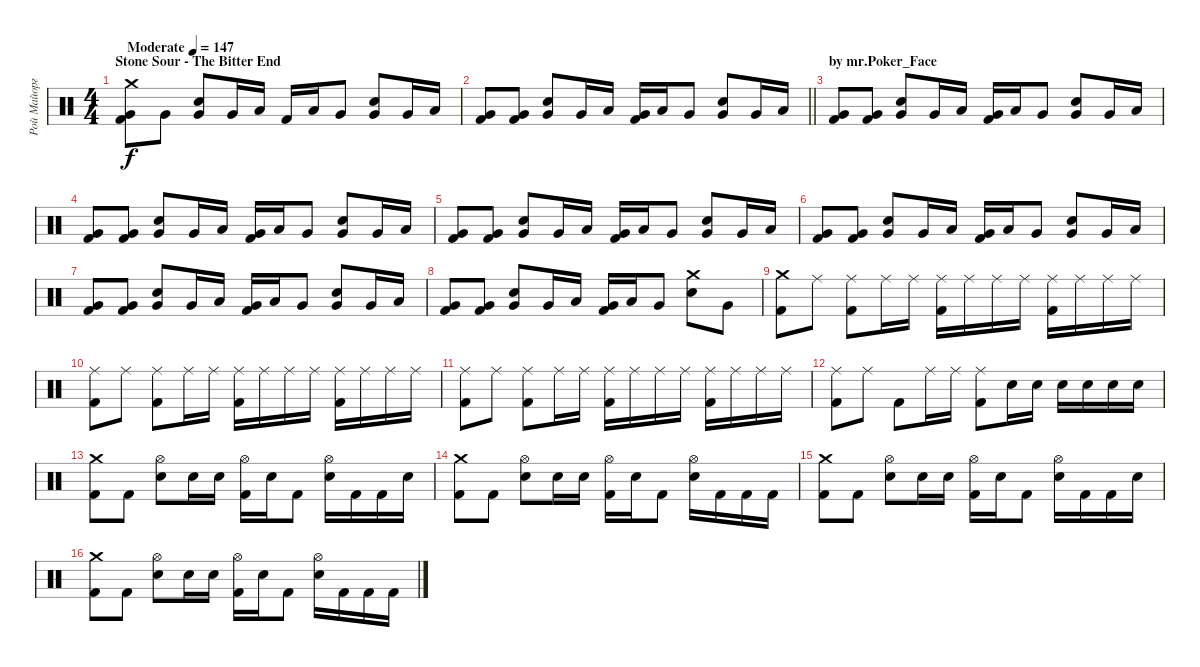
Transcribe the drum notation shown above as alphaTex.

\track ("Рой Майорга" "Рой Майорг") {instrument percussion}
\staff {score}
\articulation defaults
\ts (4 4)
\section ("" "Stone Sour - The Bitter End")
\tempo (147 "Moderate")
\clef neutral
\ks c
("Crash medium (hit)" "Very Low Tom (hit)" "Kick (hit) 2").8{dy f} "Very Low Tom (hit)".8 ("Very Low Tom (hit)" "Electric Snare (hit)").8 "Very Low Tom (hit)".16 "Low Floor Tom (hit)".16 "Kick (hit) 2".16 "Low Floor Tom (hit)".16 "Very Low Tom (hit)".8 ("Very Low Tom (hit)" "Electric Snare (hit)").8 "Very Low Tom (hit)".16 "Low Floor Tom (hit)".16 |
\barLineRight lightlight
("Very Low Tom (hit)" "Kick (hit) 2").8 ("Very Low Tom (hit)" "Kick (hit) 2").8 ("Very Low Tom (hit)" "Electric Snare (hit)").8 "Very Low Tom (hit)".16 "Low Floor Tom (hit)".16 ("Very Low Tom (hit)" "Kick (hit) 2").16 "Low Floor Tom (hit)".16 "Very Low Tom (hit)".8 ("Very Low Tom (hit)" "Electric Snare (hit)").8 "Very Low Tom (hit)".16 "Low Floor Tom (hit)".16 |
\section ("" "by mr.Poker_Face")
("Very Low Tom (hit)" "Kick (hit) 2").8 ("Very Low Tom (hit)" "Kick (hit) 2").8 ("Very Low Tom (hit)" "Electric Snare (hit)").8 "Very Low Tom (hit)".16 "Low Floor Tom (hit)".16 ("Very Low Tom (hit)" "Kick (hit) 2").16 "Low Floor Tom (hit)".16 "Very Low Tom (hit)".8 ("Very Low Tom (hit)" "Electric Snare (hit)").8 "Very Low Tom (hit)".16 "Low Floor Tom (hit)".16 |
("Very Low Tom (hit)" "Kick (hit) 2").8 ("Very Low Tom (hit)" "Kick (hit) 2").8 ("Very Low Tom (hit)" "Electric Snare (hit)").8 "Very Low Tom (hit)".16 "Low Floor Tom (hit)".16 ("Very Low Tom (hit)" "Kick (hit) 2").16 "Low Floor Tom (hit)".16 "Very Low Tom (hit)".8 ("Very Low Tom (hit)" "Electric Snare (hit)").8 "Very Low Tom (hit)".16 "Low Floor Tom (hit)".16 |
("Very Low Tom (hit)" "Kick (hit) 2").8 ("Very Low Tom (hit)" "Kick (hit) 2").8 ("Very Low Tom (hit)" "Electric Snare (hit)").8 "Very Low Tom (hit)".16 "Low Floor Tom (hit)".16 ("Very Low Tom (hit)" "Kick (hit) 2").16 "Low Floor Tom (hit)".16 "Very Low Tom (hit)".8 ("Very Low Tom (hit)" "Electric Snare (hit)").8 "Very Low Tom (hit)".16 "Low Floor Tom (hit)".16 |
("Very Low Tom (hit)" "Kick (hit) 2").8 ("Very Low Tom (hit)" "Kick (hit) 2").8 ("Very Low Tom (hit)" "Electric Snare (hit)").8 "Very Low Tom (hit)".16 "Low Floor Tom (hit)".16 ("Very Low Tom (hit)" "Kick (hit) 2").16 "Low Floor Tom (hit)".16 "Very Low Tom (hit)".8 ("Very Low Tom (hit)" "Electric Snare (hit)").8 "Very Low Tom (hit)".16 "Low Floor Tom (hit)".16 |
("Very Low Tom (hit)" "Kick (hit) 2").8 ("Very Low Tom (hit)" "Kick (hit) 2").8 ("Very Low Tom (hit)" "Electric Snare (hit)").8 "Very Low Tom (hit)".16 "Low Floor Tom (hit)".16 ("Very Low Tom (hit)" "Kick (hit) 2").16 "Low Floor Tom (hit)".16 "Very Low Tom (hit)".8 ("Very Low Tom (hit)" "Electric Snare (hit)").8 "Very Low Tom (hit)".16 "Low Floor Tom (hit)".16 |
("Very Low Tom (hit)" "Kick (hit) 2").8 ("Very Low Tom (hit)" "Kick (hit) 2").8 ("Very Low Tom (hit)" "Electric Snare (hit)").8 "Very Low Tom (hit)".16 "Low Floor Tom (hit)".16 ("Very Low Tom (hit)" "Kick (hit) 2").16 "Low Floor Tom (hit)".16 "Very Low Tom (hit)".8 ("Crash medium (hit)" "Electric Snare (hit)").8 "Very Low Tom (hit)".8 |
("Crash medium (hit)" "Kick (hit) 2").8 "Ride (middle)".8 ("Ride (middle)" "Kick (hit) 2").8 "Ride (middle)".16 "Ride (middle)".16 ("Ride (middle)" "Kick (hit) 2").16 "Ride (middle)".16 "Ride (middle)".16 "Ride (middle)".16 ("Ride (middle)" "Kick (hit) 2").16 "Ride (middle)".16 "Ride (middle)".16 "Ride (middle)".16 |
("Ride (middle)" "Kick (hit) 2").8 "Ride (middle)".8 ("Ride (middle)" "Kick (hit) 2").8 "Ride (middle)".16 "Ride (middle)".16 ("Ride (middle)" "Kick (hit) 2").16 "Ride (middle)".16 "Ride (middle)".16 "Ride (middle)".16 ("Ride (middle)" "Kick (hit) 2").16 "Ride (middle)".16 "Ride (middle)".16 "Ride (middle)".16 |
("Ride (middle)" "Kick (hit) 2").8 "Ride (middle)".8 ("Ride (middle)" "Kick (hit) 2").8 "Ride (middle)".16 "Ride (middle)".16 ("Ride (middle)" "Kick (hit) 2").16 "Ride (middle)".16 "Ride (middle)".16 "Ride (middle)".16 ("Ride (middle)" "Kick (hit) 2").16 "Ride (middle)".16 "Ride (middle)".16 "Ride (middle)".16 |
("Ride (middle)" "Kick (hit) 2").8 "Ride (middle)".8 "Kick (hit) 2".8 "Ride (middle)".16 "Ride (middle)".16 ("Ride (middle)" "Kick (hit) 2").8 "Electric Snare (hit)".16 "Electric Snare (hit)".16 "Electric Snare (hit)".16 "Electric Snare (hit)".16 "Electric Snare (hit)".16 "Electric Snare (hit)".16 |
("Crash medium (hit)" "Kick (hit) 2").8 "Kick (hit) 2".8 ("Hi-Hat (open)" "Electric Snare (hit)").8 "Electric Snare (hit)".16 "Electric Snare (hit)".16 ("Hi-Hat (open)" "Kick (hit) 2").16 "Electric Snare (hit)".16 "Kick (hit) 2".8 ("Hi-Hat (open)" "Electric Snare (hit)").16 "Kick (hit) 2".16 "Kick (hit) 2".16 "Electric Snare (hit)".16 |
("Crash medium (hit)" "Kick (hit) 2").8 "Kick (hit) 2".8 ("Hi-Hat (open)" "Electric Snare (hit)").8 "Electric Snare (hit)".16 "Electric Snare (hit)".16 ("Hi-Hat (open)" "Kick (hit) 2").16 "Electric Snare (hit)".16 "Kick (hit) 2".8 ("Hi-Hat (open)" "Electric Snare (hit)").16 "Kick (hit) 2".16 "Kick (hit) 2".16 "Kick (hit) 2".16 |
("Crash medium (hit)" "Kick (hit) 2").8 "Kick (hit) 2".8 ("Hi-Hat (open)" "Electric Snare (hit)").8 "Electric Snare (hit)".16 "Electric Snare (hit)".16 ("Hi-Hat (open)" "Kick (hit) 2").16 "Electric Snare (hit)".16 "Kick (hit) 2".8 ("Hi-Hat (open)" "Electric Snare (hit)").16 "Kick (hit) 2".16 "Kick (hit) 2".16 "Electric Snare (hit)".16 |
("Crash medium (hit)" "Kick (hit) 2").8 "Kick (hit) 2".8 ("Hi-Hat (open)" "Electric Snare (hit)").8 "Electric Snare (hit)".16 "Electric Snare (hit)".16 ("Hi-Hat (open)" "Kick (hit) 2").16 "Electric Snare (hit)".16 "Kick (hit) 2".8 ("Hi-Hat (open)" "Electric Snare (hit)").16 "Kick (hit) 2".16 "Kick (hit) 2".16 "Kick (hit) 2".16
